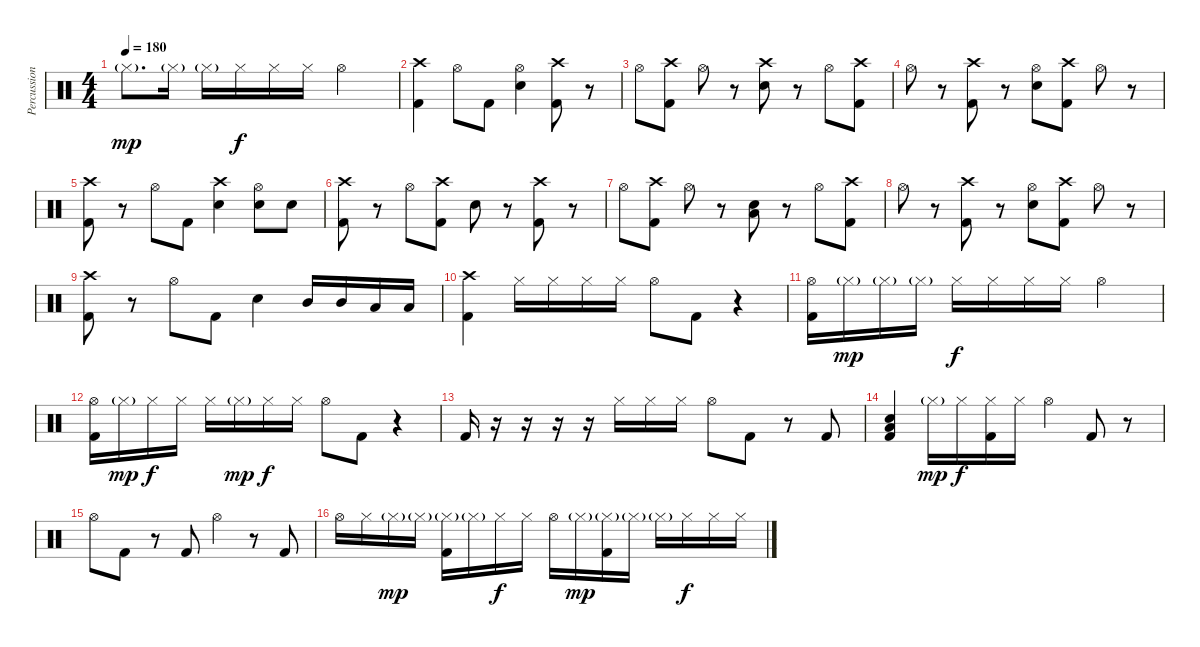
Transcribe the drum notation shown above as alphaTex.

\track ("Percussion" "Percussion") {instrument percussion}
\staff {score}
\articulation defaults
\ts (4 4)
\tempo 180
\clef neutral
\ks c "Hi-Hat (closed)"{g}.8{d dy mp} "Hi-Hat (closed)"{g}.16 "Hi-Hat (closed)"{g}.16 "Hi-Hat (closed)".16{dy f} "Hi-Hat (closed)".16 "Hi-Hat (closed)".16 "Hi-Hat (open)".2
|
("Crash high (hit)" "Kick (hit) 2").4 "Hi-Hat (open)".8 "Kick (hit) 2".8 ("Hi-Hat (open)" "Electric Snare (hit)").4 ("Crash high (hit)" "Kick (hit) 2").8 r.8 |
"Hi-Hat (open)".8 ("Crash high (hit)" "Kick (hit) 2").8 "Hi-Hat (open)".8 r.8 ("Crash high (hit)" "Electric Snare (hit)").8 r.8 "Hi-Hat (open)".8 ("Crash high (hit)" "Kick (hit) 2").8 |
"Hi-Hat (open)".8 r.8 ("Crash high (hit)" "Kick (hit) 2").8 r.8 ("Hi-Hat (open)" "Electric Snare (hit)").8 ("Crash high (hit)" "Kick (hit) 2").8 "Hi-Hat (open)".8 r.8 |
("Crash high (hit)" "Kick (hit) 2").8 r.8 "Hi-Hat (open)".8 "Kick (hit) 2".8 ("Crash high (hit)" "Electric Snare (hit)").4 ("Hi-Hat (open)" "Electric Snare (hit)").8 "Electric Snare (hit)".8 |
("Crash high (hit)" "Kick (hit) 2").8 r.8 "Hi-Hat (open)".8 ("Crash high (hit)" "Kick (hit) 2").8 "Electric Snare (hit)".8 r.8 ("Crash high (hit)" "Kick (hit) 2").8 r.8 |
"Hi-Hat (open)".8 ("Crash high (hit)" "Kick (hit) 2").8 "Hi-Hat (open)".8 r.8 ("Electric Snare (hit)" "Low Tom (hit)").8 r.8 "Hi-Hat (open)".8 ("Crash high (hit)" "Kick (hit) 2").8 |
"Hi-Hat (open)".8 r.8 ("Crash high (hit)" "Kick (hit) 2").8 r.8 ("Hi-Hat (open)" "Electric Snare (hit)").8 ("Crash high (hit)" "Kick (hit) 2").8 "Hi-Hat (open)".8 r.8 |
("Crash high (hit)" "Kick (hit) 2").8 r.8 "Hi-Hat (open)".8 "Kick (hit) 2".8 "Electric Snare (hit)".4 "Mid Tom (hit)".16 "Mid Tom (hit)".16 "Low Tom (hit)".16 "Low Tom (hit)".16 |
("Crash high (hit)" "Kick (hit) 2").4 "Hi-Hat (closed)".16 "Hi-Hat (closed)".16 "Hi-Hat (closed)".16 "Hi-Hat (closed)".16 "Hi-Hat (open)".8 "Kick (hit) 2".8 r.4 |
("Hi-Hat (open)" "Kick (hit) 2").16 "Hi-Hat (closed)"{g}.16{dy mp} "Hi-Hat (closed)"{g}.16 "Hi-Hat (closed)"{g}.16 "Hi-Hat (closed)".16{dy f} "Hi-Hat (closed)".16 "Hi-Hat (closed)".16 "Hi-Hat (closed)".16 "Hi-Hat (open)".2 |
("Hi-Hat (open)" "Kick (hit) 2").16 "Hi-Hat (closed)"{g}.16{dy mp} "Hi-Hat (closed)".16{dy f} "Hi-Hat (closed)".16 "Hi-Hat (closed)".16 "Hi-Hat (closed)"{g}.16{dy mp} "Hi-Hat (closed)".16{dy f} "Hi-Hat (closed)".16 "Hi-Hat (open)".8 "Kick (hit) 2".8 r.4 |
"Kick (hit) 2".16 r.16 r.16 r.16 r.16 "Hi-Hat (closed)".16 "Hi-Hat (closed)".16 "Hi-Hat (closed)".16 "Hi-Hat (open)".8 "Kick (hit) 2".8 r.8 "Kick (hit) 2".8 |
("Electric Snare (hit)" "Low Tom (hit)" "Kick (hit) 2").4 "Hi-Hat (closed)"{g}.16{dy mp} "Hi-Hat (closed)".16{dy f} ("Hi-Hat (closed)" "Kick (hit) 2").16 "Hi-Hat (closed)".16 "Hi-Hat (open)".4 "Kick (hit) 2".8 r.8 |
"Hi-Hat (open)".8 "Kick (hit) 2".8 r.8 "Kick (hit) 2".8 "Hi-Hat (open)".4 r.8 "Kick (hit) 2".8 |
"Hi-Hat (open)".16 "Hi-Hat (closed)".16 "Hi-Hat (closed)"{g}.16{dy mp} "Hi-Hat (closed)"{g}.16 ("Hi-Hat (closed)"{g} "Kick (hit) 2").16 "Hi-Hat (closed)"{g}.16 "Hi-Hat (closed)".16{dy f} "Hi-Hat (closed)".16 "Hi-Hat (open)".16 "Hi-Hat (closed)"{g}.16{dy mp} ("Hi-Hat (closed)"{g} "Kick (hit) 2").16 "Hi-Hat (closed)"{g}.16 "Hi-Hat (closed)"{g}.16 "Hi-Hat (closed)".16{dy f} "Hi-Hat (closed)".16 "Hi-Hat (closed)".16
